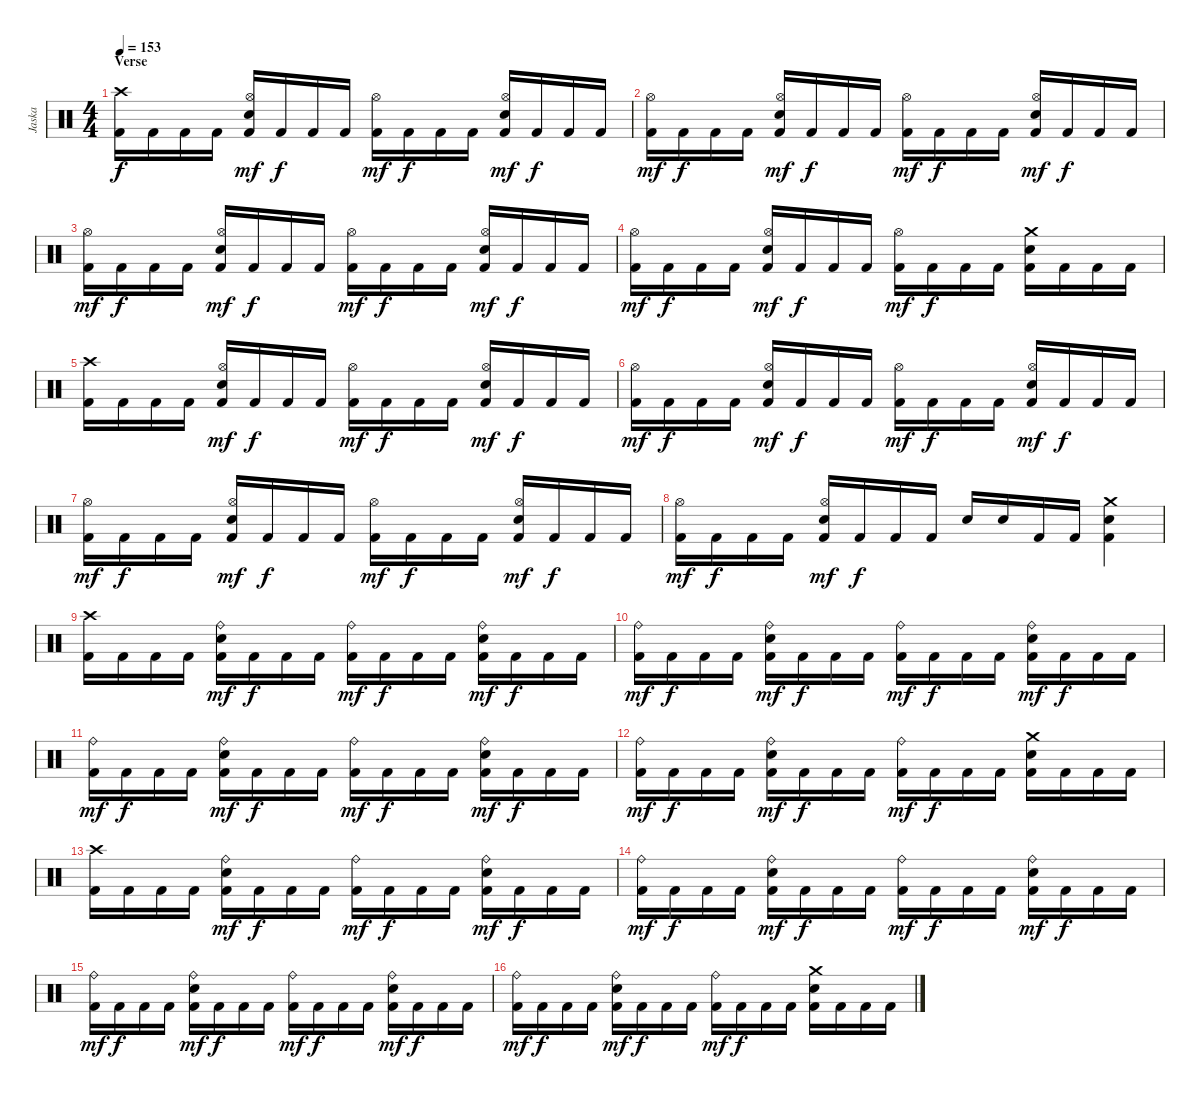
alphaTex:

\track ("Jaska" "Jaska") {instrument percussion}
\staff {score}
\articulation defaults
\ts (4 4)
\section ("" "Verse")
\tempo 153
\clef neutral
\ks c
("Crash high (hit)" "Kick (hit) 2").16{dy f} "Kick (hit) 2".16 "Kick (hit) 2".16 "Kick (hit) 2".16 ("Hi-Hat (open)" "Electric Snare (hit)" "Kick (hit) 2").16{dy mf} "Kick (hit) 2".16{dy f} "Kick (hit) 2".16 "Kick (hit) 2".16 ("Hi-Hat (open)" "Kick (hit) 2").16{dy mf} "Kick (hit) 2".16{dy f} "Kick (hit) 2".16 "Kick (hit) 2".16 ("Hi-Hat (open)" "Electric Snare (hit)" "Kick (hit) 2").16{dy mf} "Kick (hit) 2".16{dy f} "Kick (hit) 2".16 "Kick (hit) 2".16 |
("Hi-Hat (open)" "Kick (hit) 2").16{dy mf} "Kick (hit) 2".16{dy f} "Kick (hit) 2".16 "Kick (hit) 2".16 ("Hi-Hat (open)" "Electric Snare (hit)" "Kick (hit) 2").16{dy mf} "Kick (hit) 2".16{dy f} "Kick (hit) 2".16 "Kick (hit) 2".16 ("Hi-Hat (open)" "Kick (hit) 2").16{dy mf} "Kick (hit) 2".16{dy f} "Kick (hit) 2".16 "Kick (hit) 2".16 ("Hi-Hat (open)" "Electric Snare (hit)" "Kick (hit) 2").16{dy mf} "Kick (hit) 2".16{dy f} "Kick (hit) 2".16 "Kick (hit) 2".16 |
("Hi-Hat (open)" "Kick (hit) 2").16{dy mf} "Kick (hit) 2".16{dy f} "Kick (hit) 2".16 "Kick (hit) 2".16 ("Hi-Hat (open)" "Electric Snare (hit)" "Kick (hit) 2").16{dy mf} "Kick (hit) 2".16{dy f} "Kick (hit) 2".16 "Kick (hit) 2".16 ("Hi-Hat (open)" "Kick (hit) 2").16{dy mf} "Kick (hit) 2".16{dy f} "Kick (hit) 2".16 "Kick (hit) 2".16 ("Hi-Hat (open)" "Electric Snare (hit)" "Kick (hit) 2").16{dy mf} "Kick (hit) 2".16{dy f} "Kick (hit) 2".16 "Kick (hit) 2".16 |
("Hi-Hat (open)" "Kick (hit) 2").16{dy mf} "Kick (hit) 2".16{dy f} "Kick (hit) 2".16 "Kick (hit) 2".16 ("Hi-Hat (open)" "Electric Snare (hit)" "Kick (hit) 2").16{dy mf} "Kick (hit) 2".16{dy f} "Kick (hit) 2".16 "Kick (hit) 2".16 ("Hi-Hat (open)" "Kick (hit) 2").16{dy mf} "Kick (hit) 2".16{dy f} "Kick (hit) 2".16 "Kick (hit) 2".16 ("Crash medium (hit)" "Electric Snare (hit)" "Kick (hit) 2").16 "Kick (hit) 2".16 "Kick (hit) 2".16 "Kick (hit) 2".16 |
("Crash high (hit)" "Kick (hit) 2").16 "Kick (hit) 2".16 "Kick (hit) 2".16 "Kick (hit) 2".16 ("Hi-Hat (open)" "Electric Snare (hit)" "Kick (hit) 2").16{dy mf} "Kick (hit) 2".16{dy f} "Kick (hit) 2".16 "Kick (hit) 2".16 ("Hi-Hat (open)" "Kick (hit) 2").16{dy mf} "Kick (hit) 2".16{dy f} "Kick (hit) 2".16 "Kick (hit) 2".16 ("Hi-Hat (open)" "Electric Snare (hit)" "Kick (hit) 2").16{dy mf} "Kick (hit) 2".16{dy f} "Kick (hit) 2".16 "Kick (hit) 2".16 |
("Hi-Hat (open)" "Kick (hit) 2").16{dy mf} "Kick (hit) 2".16{dy f} "Kick (hit) 2".16 "Kick (hit) 2".16 ("Hi-Hat (open)" "Electric Snare (hit)" "Kick (hit) 2").16{dy mf} "Kick (hit) 2".16{dy f} "Kick (hit) 2".16 "Kick (hit) 2".16 ("Hi-Hat (open)" "Kick (hit) 2").16{dy mf} "Kick (hit) 2".16{dy f} "Kick (hit) 2".16 "Kick (hit) 2".16 ("Hi-Hat (open)" "Electric Snare (hit)" "Kick (hit) 2").16{dy mf} "Kick (hit) 2".16{dy f} "Kick (hit) 2".16 "Kick (hit) 2".16 |
("Hi-Hat (open)" "Kick (hit) 2").16{dy mf} "Kick (hit) 2".16{dy f} "Kick (hit) 2".16 "Kick (hit) 2".16 ("Hi-Hat (open)" "Electric Snare (hit)" "Kick (hit) 2").16{dy mf} "Kick (hit) 2".16{dy f} "Kick (hit) 2".16 "Kick (hit) 2".16 ("Hi-Hat (open)" "Kick (hit) 2").16{dy mf} "Kick (hit) 2".16{dy f} "Kick (hit) 2".16 "Kick (hit) 2".16 ("Hi-Hat (open)" "Electric Snare (hit)" "Kick (hit) 2").16{dy mf} "Kick (hit) 2".16{dy f} "Kick (hit) 2".16 "Kick (hit) 2".16 |
("Hi-Hat (open)" "Kick (hit) 2").16{dy mf} "Kick (hit) 2".16{dy f} "Kick (hit) 2".16 "Kick (hit) 2".16 ("Hi-Hat (open)" "Electric Snare (hit)" "Kick (hit) 2").16{dy mf} "Kick (hit) 2".16{dy f} "Kick (hit) 2".16 "Kick (hit) 2".16 "Electric Snare (hit)".16 "Electric Snare (hit)".16 "Kick (hit) 2".16 "Kick (hit) 2".16 ("Crash medium (hit)" "Electric Snare (hit)" "Kick (hit) 2").4 |
("Crash high (hit)" "Kick (hit) 2").16 "Kick (hit) 2".16 "Kick (hit) 2".16 "Kick (hit) 2".16 ("Ride (bell)" "Electric Snare (hit)" "Kick (hit) 2").16{dy mf} "Kick (hit) 2".16{dy f} "Kick (hit) 2".16 "Kick (hit) 2".16 ("Ride (bell)" "Kick (hit) 2").16{dy mf} "Kick (hit) 2".16{dy f} "Kick (hit) 2".16 "Kick (hit) 2".16 ("Ride (bell)" "Electric Snare (hit)" "Kick (hit) 2").16{dy mf} "Kick (hit) 2".16{dy f} "Kick (hit) 2".16 "Kick (hit) 2".16 |
("Ride (bell)" "Kick (hit) 2").16{dy mf} "Kick (hit) 2".16{dy f} "Kick (hit) 2".16 "Kick (hit) 2".16 ("Ride (bell)" "Electric Snare (hit)" "Kick (hit) 2").16{dy mf} "Kick (hit) 2".16{dy f} "Kick (hit) 2".16 "Kick (hit) 2".16 ("Ride (bell)" "Kick (hit) 2").16{dy mf} "Kick (hit) 2".16{dy f} "Kick (hit) 2".16 "Kick (hit) 2".16 ("Ride (bell)" "Electric Snare (hit)" "Kick (hit) 2").16{dy mf} "Kick (hit) 2".16{dy f} "Kick (hit) 2".16 "Kick (hit) 2".16 |
("Ride (bell)" "Kick (hit) 2").16{dy mf} "Kick (hit) 2".16{dy f} "Kick (hit) 2".16 "Kick (hit) 2".16 ("Ride (bell)" "Electric Snare (hit)" "Kick (hit) 2").16{dy mf} "Kick (hit) 2".16{dy f} "Kick (hit) 2".16 "Kick (hit) 2".16 ("Ride (bell)" "Kick (hit) 2").16{dy mf} "Kick (hit) 2".16{dy f} "Kick (hit) 2".16 "Kick (hit) 2".16 ("Ride (bell)" "Electric Snare (hit)" "Kick (hit) 2").16{dy mf} "Kick (hit) 2".16{dy f} "Kick (hit) 2".16 "Kick (hit) 2".16 |
("Ride (bell)" "Kick (hit) 2").16{dy mf} "Kick (hit) 2".16{dy f} "Kick (hit) 2".16 "Kick (hit) 2".16 ("Ride (bell)" "Electric Snare (hit)" "Kick (hit) 2").16{dy mf} "Kick (hit) 2".16{dy f} "Kick (hit) 2".16 "Kick (hit) 2".16 ("Ride (bell)" "Kick (hit) 2").16{dy mf} "Kick (hit) 2".16{dy f} "Kick (hit) 2".16 "Kick (hit) 2".16 ("Crash medium (hit)" "Electric Snare (hit)" "Kick (hit) 2").16 "Kick (hit) 2".16 "Kick (hit) 2".16 "Kick (hit) 2".16 |
("Crash high (hit)" "Kick (hit) 2").16 "Kick (hit) 2".16 "Kick (hit) 2".16 "Kick (hit) 2".16 ("Ride (bell)" "Electric Snare (hit)" "Kick (hit) 2").16{dy mf} "Kick (hit) 2".16{dy f} "Kick (hit) 2".16 "Kick (hit) 2".16 ("Ride (bell)" "Kick (hit) 2").16{dy mf} "Kick (hit) 2".16{dy f} "Kick (hit) 2".16 "Kick (hit) 2".16 ("Ride (bell)" "Electric Snare (hit)" "Kick (hit) 2").16{dy mf} "Kick (hit) 2".16{dy f} "Kick (hit) 2".16 "Kick (hit) 2".16 |
("Ride (bell)" "Kick (hit) 2").16{dy mf} "Kick (hit) 2".16{dy f} "Kick (hit) 2".16 "Kick (hit) 2".16 ("Ride (bell)" "Electric Snare (hit)" "Kick (hit) 2").16{dy mf} "Kick (hit) 2".16{dy f} "Kick (hit) 2".16 "Kick (hit) 2".16 ("Ride (bell)" "Kick (hit) 2").16{dy mf} "Kick (hit) 2".16{dy f} "Kick (hit) 2".16 "Kick (hit) 2".16 ("Ride (bell)" "Electric Snare (hit)" "Kick (hit) 2").16{dy mf} "Kick (hit) 2".16{dy f} "Kick (hit) 2".16 "Kick (hit) 2".16 |
("Ride (bell)" "Kick (hit) 2").16{dy mf} "Kick (hit) 2".16{dy f} "Kick (hit) 2".16 "Kick (hit) 2".16 ("Ride (bell)" "Electric Snare (hit)" "Kick (hit) 2").16{dy mf} "Kick (hit) 2".16{dy f} "Kick (hit) 2".16 "Kick (hit) 2".16 ("Ride (bell)" "Kick (hit) 2").16{dy mf} "Kick (hit) 2".16{dy f} "Kick (hit) 2".16 "Kick (hit) 2".16 ("Ride (bell)" "Electric Snare (hit)" "Kick (hit) 2").16{dy mf} "Kick (hit) 2".16{dy f} "Kick (hit) 2".16 "Kick (hit) 2".16 |
("Ride (bell)" "Kick (hit) 2").16{dy mf} "Kick (hit) 2".16{dy f} "Kick (hit) 2".16 "Kick (hit) 2".16 ("Ride (bell)" "Electric Snare (hit)" "Kick (hit) 2").16{dy mf} "Kick (hit) 2".16{dy f} "Kick (hit) 2".16 "Kick (hit) 2".16 ("Ride (bell)" "Kick (hit) 2").16{dy mf} "Kick (hit) 2".16{dy f} "Kick (hit) 2".16 "Kick (hit) 2".16 ("Crash medium (hit)" "Electric Snare (hit)" "Kick (hit) 2").16 "Kick (hit) 2".16 "Kick (hit) 2".16 "Kick (hit) 2".16
